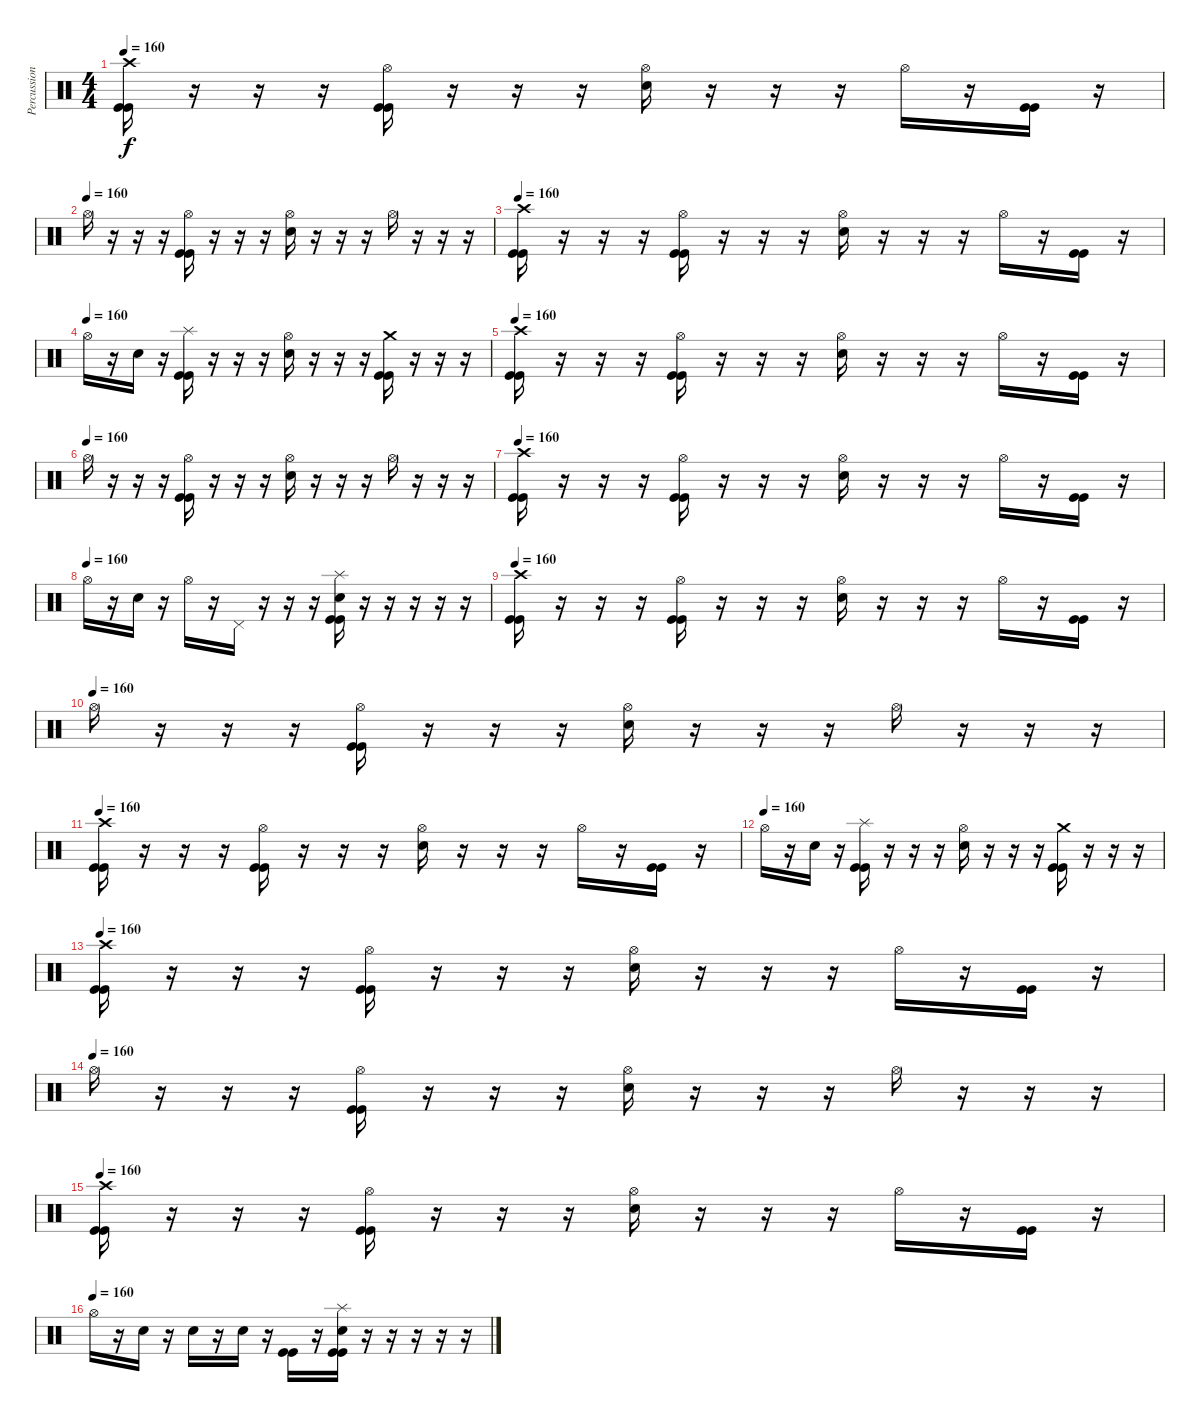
\track ("Percussions" "Percussion") {instrument percussion}
\staff {score}
\articulation defaults
\ts (4 4)
\tempo 160
\clef neutral
\ks c
("Crash high (hit)" "Kick (hit)" "Kick (hit)").16{dy f} r.16 r.16 r.16 ("Hi-Hat (open)" "Kick (hit)" "Kick (hit)").16 r.16 r.16 r.16 ("Hi-Hat (open)" "Electric Snare (hit)").16 r.16 r.16 r.16 "Hi-Hat (open)".16 r.16 ("Kick (hit)" "Kick (hit)").16 r.16 |
\tempo (160)
"Hi-Hat (open)".16 r.16 r.16 r.16 ("Hi-Hat (open)" "Kick (hit)" "Kick (hit)").16 r.16 r.16 r.16 ("Hi-Hat (open)" "Electric Snare (hit)").16 r.16 r.16 r.16 "Hi-Hat (open)".16 r.16 r.16 r.16 |
\tempo 160
("Crash high (hit)" "Kick (hit)" "Kick (hit)").16 r.16 r.16 r.16 ("Hi-Hat (open)" "Kick (hit)" "Kick (hit)").16 r.16 r.16 r.16 ("Hi-Hat (open)" "Electric Snare (hit)").16 r.16 r.16 r.16 "Hi-Hat (open)".16 r.16 ("Kick (hit)" "Kick (hit)").16 r.16 |
\tempo (160)
"Hi-Hat (open)".16 r.16 "Electric Snare (hit)".16 r.16 ("Splash (hit)" "Kick (hit)" "Kick (hit)").16 r.16 r.16 r.16 ("Hi-Hat (open)" "Electric Snare (hit)").16 r.16 r.16 r.16 ("Crash medium (hit)" "Kick (hit)" "Kick (hit)").16 r.16 r.16 r.16 |
\tempo 160
("Crash high (hit)" "Kick (hit)" "Kick (hit)").16 r.16 r.16 r.16 ("Hi-Hat (open)" "Kick (hit)" "Kick (hit)").16 r.16 r.16 r.16 ("Hi-Hat (open)" "Electric Snare (hit)").16 r.16 r.16 r.16 "Hi-Hat (open)".16 r.16 ("Kick (hit)" "Kick (hit)").16 r.16 |
\tempo (160)
"Hi-Hat (open)".16 r.16 r.16 r.16 ("Hi-Hat (open)" "Kick (hit)" "Kick (hit)").16 r.16 r.16 r.16 ("Hi-Hat (open)" "Electric Snare (hit)").16 r.16 r.16 r.16 "Hi-Hat (open)".16 r.16 r.16 r.16 |
\tempo 160
("Crash high (hit)" "Kick (hit)" "Kick (hit)").16 r.16 r.16 r.16 ("Hi-Hat (open)" "Kick (hit)" "Kick (hit)").16 r.16 r.16 r.16 ("Hi-Hat (open)" "Electric Snare (hit)").16 r.16 r.16 r.16 "Hi-Hat (open)".16 r.16 ("Kick (hit)" "Kick (hit)").16 r.16 |
\tempo (160)
"Hi-Hat (open)".16 r.16 "Electric Snare (hit)".16 r.16 "Hi-Hat (open)".16 r.16 "Pedal Hi-Hat (hit)".16 r.16 r.16 r.16 ("Splash (hit)" "Electric Snare (hit)" "Kick (hit)" "Kick (hit)").16 r.16 r.16 r.16 r.16 r.16 |
\tempo 160
("Crash high (hit)" "Kick (hit)" "Kick (hit)").16 r.16 r.16 r.16 ("Hi-Hat (open)" "Kick (hit)" "Kick (hit)").16 r.16 r.16 r.16 ("Hi-Hat (open)" "Electric Snare (hit)").16 r.16 r.16 r.16 "Hi-Hat (open)".16 r.16 ("Kick (hit)" "Kick (hit)").16 r.16 |
\tempo (160)
"Hi-Hat (open)".16 r.16 r.16 r.16 ("Hi-Hat (open)" "Kick (hit)" "Kick (hit)").16 r.16 r.16 r.16 ("Hi-Hat (open)" "Electric Snare (hit)").16 r.16 r.16 r.16 "Hi-Hat (open)".16 r.16 r.16 r.16 |
\tempo 160
("Crash high (hit)" "Kick (hit)" "Kick (hit)").16 r.16 r.16 r.16 ("Hi-Hat (open)" "Kick (hit)" "Kick (hit)").16 r.16 r.16 r.16 ("Hi-Hat (open)" "Electric Snare (hit)").16 r.16 r.16 r.16 "Hi-Hat (open)".16 r.16 ("Kick (hit)" "Kick (hit)").16 r.16 |
\tempo (160)
"Hi-Hat (open)".16 r.16 "Electric Snare (hit)".16 r.16 ("Splash (hit)" "Kick (hit)" "Kick (hit)").16 r.16 r.16 r.16 ("Hi-Hat (open)" "Electric Snare (hit)").16 r.16 r.16 r.16 ("Crash medium (hit)" "Kick (hit)" "Kick (hit)").16 r.16 r.16 r.16 |
\tempo 160
("Crash high (hit)" "Kick (hit)" "Kick (hit)").16 r.16 r.16 r.16 ("Hi-Hat (open)" "Kick (hit)" "Kick (hit)").16 r.16 r.16 r.16 ("Hi-Hat (open)" "Electric Snare (hit)").16 r.16 r.16 r.16 "Hi-Hat (open)".16 r.16 ("Kick (hit)" "Kick (hit)").16 r.16 |
\tempo (160)
"Hi-Hat (open)".16 r.16 r.16 r.16 ("Hi-Hat (open)" "Kick (hit)" "Kick (hit)").16 r.16 r.16 r.16 ("Hi-Hat (open)" "Electric Snare (hit)").16 r.16 r.16 r.16 "Hi-Hat (open)".16 r.16 r.16 r.16 |
\tempo 160
("Crash high (hit)" "Kick (hit)" "Kick (hit)").16 r.16 r.16 r.16 ("Hi-Hat (open)" "Kick (hit)" "Kick (hit)").16 r.16 r.16 r.16 ("Hi-Hat (open)" "Electric Snare (hit)").16 r.16 r.16 r.16 "Hi-Hat (open)".16 r.16 ("Kick (hit)" "Kick (hit)").16 r.16 |
\tempo (160)
"Hi-Hat (open)".16 r.16 "Electric Snare (hit)".16 r.16 "Electric Snare (hit)".16 r.16 "Electric Snare (hit)".16 r.16 ("Kick (hit)" "Kick (hit)").16 r.16 ("Splash (hit)" "Electric Snare (hit)" "Kick (hit)" "Kick (hit)").16 r.16 r.16 r.16 r.16 r.16
